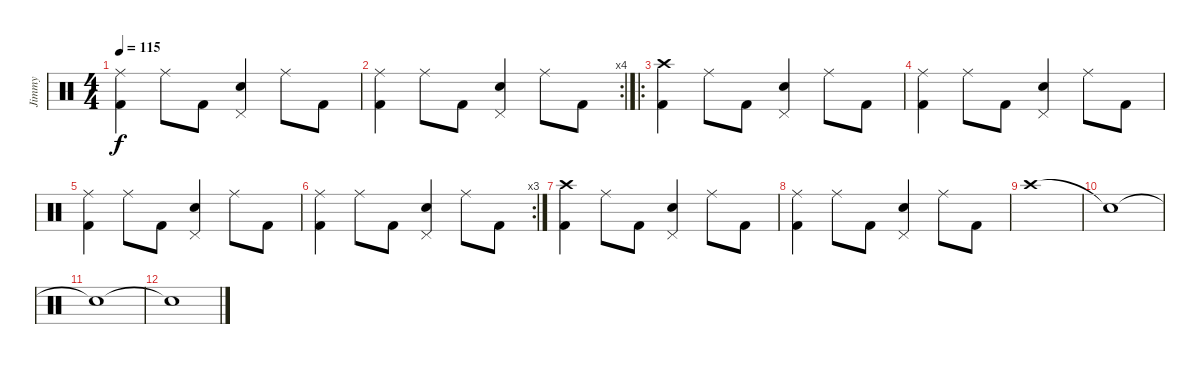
\track ("Jimmy" "Jimmy") {instrument percussion}
\staff {score}
\articulation defaults
\ts (4 4)
\tempo 115
\clef neutral
\ks c
("Ride (middle)" "Kick (hit) 2").4{dy f} "Ride (middle)".8 "Kick (hit) 2".8 ("Pedal Hi-Hat (hit)" "Snare (hit) 2").4 "Ride (middle)".8 "Kick (hit) 2".8 |
\rc 4
("Ride (middle)" "Kick (hit) 2").4 "Ride (middle)".8 "Kick (hit) 2".8 ("Pedal Hi-Hat (hit)" "Snare (hit) 2").4 "Ride (middle)".8 "Kick (hit) 2".8 |
\ro
("Crash high (hit)" "Kick (hit) 2").4 "Ride (middle)".8 "Kick (hit) 2".8 ("Pedal Hi-Hat (hit)" "Snare (hit) 2").4 "Ride (middle)".8 "Kick (hit) 2".8 |
("Ride (middle)" "Kick (hit) 2").4 "Ride (middle)".8 "Kick (hit) 2".8 ("Pedal Hi-Hat (hit)" "Snare (hit) 2").4 "Ride (middle)".8 "Kick (hit) 2".8 |
("Ride (middle)" "Kick (hit) 2").4 "Ride (middle)".8 "Kick (hit) 2".8 ("Pedal Hi-Hat (hit)" "Snare (hit) 2").4 "Ride (middle)".8 "Kick (hit) 2".8 |
\rc 3
("Ride (middle)" "Kick (hit) 2").4 "Ride (middle)".8 "Kick (hit) 2".8 ("Pedal Hi-Hat (hit)" "Snare (hit) 2").4 "Ride (middle)".8 "Kick (hit) 2".8 |
("Crash high (hit)" "Kick (hit) 2").4 "Ride (middle)".8 "Kick (hit) 2".8 ("Pedal Hi-Hat (hit)" "Snare (hit) 2").4 "Ride (middle)".8 "Kick (hit) 2".8 |
("Ride (middle)" "Kick (hit) 2").4 "Ride (middle)".8 "Kick (hit) 2".8 ("Pedal Hi-Hat (hit)" "Snare (hit) 2").4 "Ride (middle)".8 "Kick (hit) 2".8 |
"Crash high (hit)".1 |
"Snare (hit)"{t}.1 |
"Snare (hit)"{t}.1 |
"Snare (hit)"{t}.1
